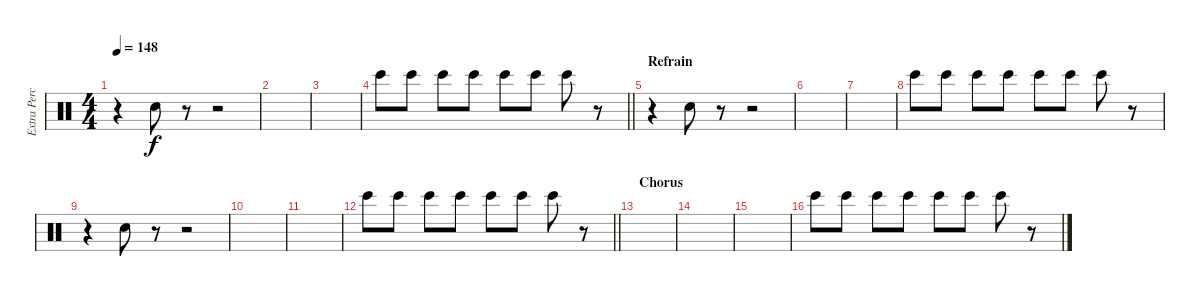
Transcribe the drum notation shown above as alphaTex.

\track ("Extra Percussion" "Extra Perc") {instrument percussion}
\staff {score}
\articulation defaults
\ts (4 4)
\tempo 148
\clef neutral
\ks c
r.4{dy f} "Hand Clap (hit)".8 r.8 r.2 |
|
|
\barLineRight lightlight "Bongo High (hit)".8 "Bongo High (hit)".8 "Bongo High (hit)".8 "Bongo High (hit)".8 "Bongo High (hit)".8 "Bongo High (hit)".8 "Bongo High (hit)".8
r.8 |
\section ("" "Refrain")
r.4 "Hand Clap (hit)".8 r.8 r.2 |
|
|
"Bongo High (hit)".8 "Bongo High (hit)".8 "Bongo High (hit)".8 "Bongo High (hit)".8 "Bongo High (hit)".8 "Bongo High (hit)".8 "Bongo High (hit)".8 r.8 |
r.4 "Hand Clap (hit)".8 r.8 r.2 |
|
|
\barLineRight lightlight "Bongo High (hit)".8 "Bongo High (hit)".8 "Bongo High (hit)".8 "Bongo High (hit)".8 "Bongo High (hit)".8 "Bongo High (hit)".8 "Bongo High (hit)".8
r.8 |
\section ("" "Chorus")
|
|
|
"Bongo High (hit)".8 "Bongo High (hit)".8 "Bongo High (hit)".8 "Bongo High (hit)".8 "Bongo High (hit)".8 "Bongo High (hit)".8 "Bongo High (hit)".8 r.8
